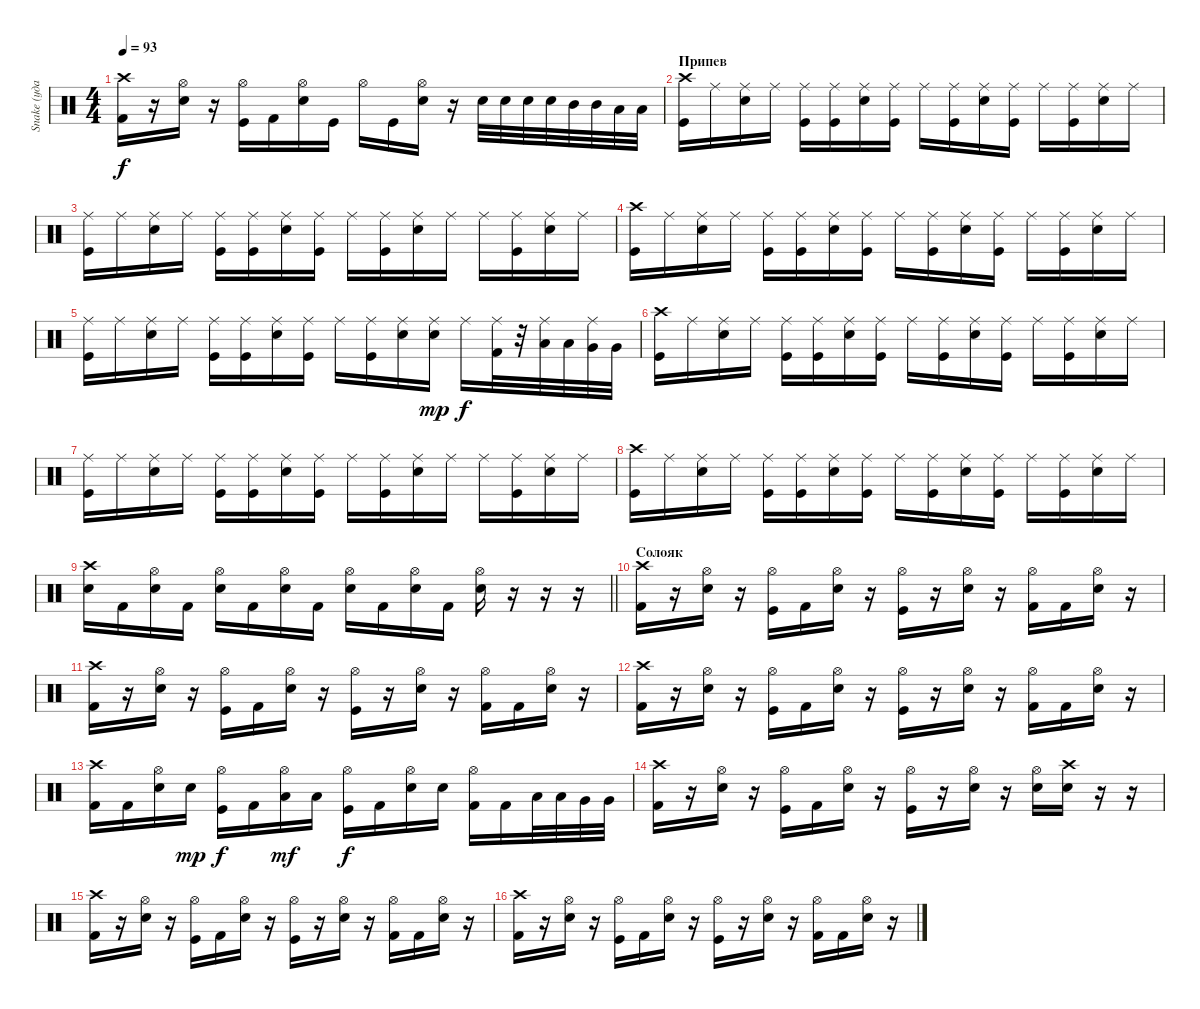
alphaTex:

\track ("Snake (ударные)" "Snake (уда") {instrument percussion}
\staff {score}
\articulation defaults
\ts (4 4)
\tempo 93
\clef neutral
\ks c
("Crash high (hit)" "Kick (hit) 2").16{dy f} r.16 ("Hi-Hat (open)" "Snare (hit) 2").16 r.16 ("Hi-Hat (open)" "Kick (hit)").16 "Kick (hit) 2".16 ("Hi-Hat (open)" "Snare (hit) 2").16 "Kick (hit)".16 "Hi-Hat (open)".16 "Kick (hit)".16 ("Hi-Hat (open)" "Snare (hit) 2").16 r.16 "Snare (hit) 2".32 "Snare (hit) 2".32 "Snare (hit) 2".32 "Snare (hit) 2".32 "Mid Tom (hit)".32 "Mid Tom (hit)".32 "Low Tom (hit)".32 "Low Tom (hit)".32 |
\section ("" "Припев")
("Crash high (hit)" "Kick (hit)").16 "Ride (middle)".16 ("Ride (middle)" "Snare (hit) 2").16 "Ride (middle)".16 ("Ride (middle)" "Kick (hit)").16 ("Ride (middle)" "Kick (hit)").16 ("Ride (middle)" "Snare (hit) 2").16 ("Ride (middle)" "Kick (hit)").16 "Ride (middle)".16 ("Ride (middle)" "Kick (hit)").16 ("Ride (middle)" "Snare (hit) 2").16 ("Ride (middle)" "Kick (hit)").16 "Ride (middle)".16 ("Ride (middle)" "Kick (hit)").16 ("Ride (middle)" "Snare (hit) 2").16 "Ride (middle)".16 |
("Ride (middle)" "Kick (hit)").16 "Ride (middle)".16 ("Ride (middle)" "Snare (hit) 2").16 "Ride (middle)".16 ("Ride (middle)" "Kick (hit)").16 ("Ride (middle)" "Kick (hit)").16 ("Ride (middle)" "Snare (hit) 2").16 ("Ride (middle)" "Kick (hit)").16 "Ride (middle)".16 ("Ride (middle)" "Kick (hit)").16 ("Ride (middle)" "Snare (hit) 2").16 "Ride (middle)".16 "Ride (middle)".16 ("Ride (middle)" "Kick (hit)").16 ("Ride (middle)" "Snare (hit) 2").16 "Ride (middle)".16 |
("Crash high (hit)" "Kick (hit)").16 "Ride (middle)".16 ("Ride (middle)" "Snare (hit) 2").16 "Ride (middle)".16 ("Ride (middle)" "Kick (hit)").16 ("Ride (middle)" "Kick (hit)").16 ("Ride (middle)" "Snare (hit) 2").16 ("Ride (middle)" "Kick (hit)").16 "Ride (middle)".16 ("Ride (middle)" "Kick (hit)").16 ("Ride (middle)" "Snare (hit) 2").16 ("Ride (middle)" "Kick (hit)").16 "Ride (middle)".16 ("Ride (middle)" "Kick (hit)").16 ("Ride (middle)" "Snare (hit) 2").16 "Ride (middle)".16 |
("Ride (middle)" "Kick (hit)").16 "Ride (middle)".16 ("Ride (middle)" "Snare (hit) 2").16 "Ride (middle)".16 ("Ride (middle)" "Kick (hit)").16 ("Ride (middle)" "Kick (hit)").16 ("Ride (middle)" "Snare (hit) 2").16 ("Ride (middle)" "Kick (hit)").16 "Ride (middle)".16 ("Ride (middle)" "Kick (hit)").16 ("Ride (middle)" "Snare (hit) 2").16 ("Ride (middle)" "Snare (hit) 2").16{dy mp} "Ride (middle)".16{dy f} ("Ride (middle)" "Kick (hit) 2").32 r.32 ("Ride (middle)" "Low Tom (hit)").32 "Low Tom (hit)".32 ("Ride (middle)" "Very Low Tom (hit)").32 "Very Low Tom (hit)".32 |
("Crash high (hit)" "Kick (hit)").16 "Ride (middle)".16 ("Ride (middle)" "Snare (hit) 2").16 "Ride (middle)".16 ("Ride (middle)" "Kick (hit)").16 ("Ride (middle)" "Kick (hit)").16 ("Ride (middle)" "Snare (hit) 2").16 ("Ride (middle)" "Kick (hit)").16 "Ride (middle)".16 ("Ride (middle)" "Kick (hit)").16 ("Ride (middle)" "Snare (hit) 2").16 ("Ride (middle)" "Kick (hit)").16 "Ride (middle)".16 ("Ride (middle)" "Kick (hit)").16 ("Ride (middle)" "Snare (hit) 2").16 "Ride (middle)".16 |
("Ride (middle)" "Kick (hit)").16 "Ride (middle)".16 ("Ride (middle)" "Snare (hit) 2").16 "Ride (middle)".16 ("Ride (middle)" "Kick (hit)").16 ("Ride (middle)" "Kick (hit)").16 ("Ride (middle)" "Snare (hit) 2").16 ("Ride (middle)" "Kick (hit)").16 "Ride (middle)".16 ("Ride (middle)" "Kick (hit)").16 ("Ride (middle)" "Snare (hit) 2").16 "Ride (middle)".16 "Ride (middle)".16 ("Ride (middle)" "Kick (hit)").16 ("Ride (middle)" "Snare (hit) 2").16 "Ride (middle)".16 |
("Crash high (hit)" "Kick (hit)").16 "Ride (middle)".16 ("Ride (middle)" "Snare (hit) 2").16 "Ride (middle)".16 ("Ride (middle)" "Kick (hit)").16 ("Ride (middle)" "Kick (hit)").16 ("Ride (middle)" "Snare (hit) 2").16 ("Ride (middle)" "Kick (hit)").16 "Ride (middle)".16 ("Ride (middle)" "Kick (hit)").16 ("Ride (middle)" "Snare (hit) 2").16 ("Ride (middle)" "Kick (hit)").16 "Ride (middle)".16 ("Ride (middle)" "Kick (hit)").16 ("Ride (middle)" "Snare (hit) 2").16 "Ride (middle)".16 |
\barLineRight lightlight
("Snare (hit) 2" "Crash high (hit)").16 "Kick (hit) 2".16 ("Snare (hit) 2" "Hi-Hat (open)").16 "Kick (hit) 2".16 ("Snare (hit) 2" "Hi-Hat (open)").16 "Kick (hit) 2".16 ("Snare (hit) 2" "Hi-Hat (open)").16 "Kick (hit) 2".16 ("Snare (hit) 2" "Hi-Hat (open)").16 "Kick (hit) 2".16 ("Snare (hit) 2" "Hi-Hat (open)").16 "Kick (hit) 2".16 ("Snare (hit) 2" "Hi-Hat (open)").16 r.16 r.16 r.16 |
\section ("" "Солояк")
("Crash high (hit)" "Kick (hit) 2").16 r.16 ("Hi-Hat (open)" "Snare (hit) 2").16 r.16 ("Hi-Hat (open)" "Kick (hit)").16 "Kick (hit) 2".16 ("Hi-Hat (open)" "Snare (hit) 2").16 r.16 ("Hi-Hat (open)" "Kick (hit)").16 r.16 ("Hi-Hat (open)" "Snare (hit) 2").16 r.16 ("Hi-Hat (open)" "Kick (hit) 2").16 "Kick (hit) 2".16 ("Hi-Hat (open)" "Snare (hit) 2").16 r.16 |
("Crash high (hit)" "Kick (hit) 2").16 r.16 ("Hi-Hat (open)" "Snare (hit) 2").16 r.16 ("Hi-Hat (open)" "Kick (hit)").16 "Kick (hit) 2".16 ("Hi-Hat (open)" "Snare (hit) 2").16 r.16 ("Hi-Hat (open)" "Kick (hit)").16 r.16 ("Hi-Hat (open)" "Snare (hit) 2").16 r.16 ("Hi-Hat (open)" "Kick (hit) 2").16 "Kick (hit) 2".16 ("Hi-Hat (open)" "Snare (hit) 2").16 r.16 |
("Crash high (hit)" "Kick (hit) 2").16 r.16 ("Hi-Hat (open)" "Snare (hit) 2").16 r.16 ("Hi-Hat (open)" "Kick (hit)").16 "Kick (hit) 2".16 ("Hi-Hat (open)" "Snare (hit) 2").16 r.16 ("Hi-Hat (open)" "Kick (hit)").16 r.16 ("Hi-Hat (open)" "Snare (hit) 2").16 r.16 ("Hi-Hat (open)" "Kick (hit) 2").16 "Kick (hit) 2".16 ("Hi-Hat (open)" "Snare (hit) 2").16 r.16 |
("Crash high (hit)" "Kick (hit) 2").16 "Kick (hit) 2".16 ("Hi-Hat (open)" "Snare (hit) 2").16 "Snare (hit) 2".16{dy mp} ("Hi-Hat (open)" "Kick (hit)").16{dy f} "Kick (hit) 2".16 ("Hi-Hat (open)" "Low Tom (hit)").16{dy mf} "Low Tom (hit)".16 ("Hi-Hat (open)" "Kick (hit)").16{dy f} "Kick (hit) 2".16 ("Hi-Hat (open)" "Snare (hit) 2").16 "Snare (hit) 2".16 ("Hi-Hat (open)" "Kick (hit) 2").16 "Kick (hit) 2".16 "Low Tom (hit)".32 "Low Tom (hit)".32 "Very Low Tom (hit)".32 "Very Low Tom (hit)".32 |
("Crash high (hit)" "Kick (hit) 2").16 r.16 ("Hi-Hat (open)" "Snare (hit) 2").16 r.16 ("Hi-Hat (open)" "Kick (hit)").16 "Kick (hit) 2".16 ("Hi-Hat (open)" "Snare (hit) 2").16 r.16 ("Hi-Hat (open)" "Kick (hit)").16 r.16 ("Hi-Hat (open)" "Snare (hit) 2").16 r.16 ("Hi-Hat (open)" "Snare (hit) 2").16 ("Crash high (hit)" "Snare (hit) 2").16 r.16 r.16 |
("Crash high (hit)" "Kick (hit) 2").16 r.16 ("Hi-Hat (open)" "Snare (hit) 2").16 r.16 ("Hi-Hat (open)" "Kick (hit)").16 "Kick (hit) 2".16 ("Hi-Hat (open)" "Snare (hit) 2").16 r.16 ("Hi-Hat (open)" "Kick (hit)").16 r.16 ("Hi-Hat (open)" "Snare (hit) 2").16 r.16 ("Hi-Hat (open)" "Kick (hit) 2").16 "Kick (hit) 2".16 ("Hi-Hat (open)" "Snare (hit) 2").16 r.16 |
("Crash high (hit)" "Kick (hit) 2").16 r.16 ("Hi-Hat (open)" "Snare (hit) 2").16 r.16 ("Hi-Hat (open)" "Kick (hit)").16 "Kick (hit) 2".16 ("Hi-Hat (open)" "Snare (hit) 2").16 r.16 ("Hi-Hat (open)" "Kick (hit)").16 r.16 ("Hi-Hat (open)" "Snare (hit) 2").16 r.16 ("Hi-Hat (open)" "Kick (hit) 2").16 "Kick (hit) 2".16 ("Hi-Hat (open)" "Snare (hit) 2").16 r.16
